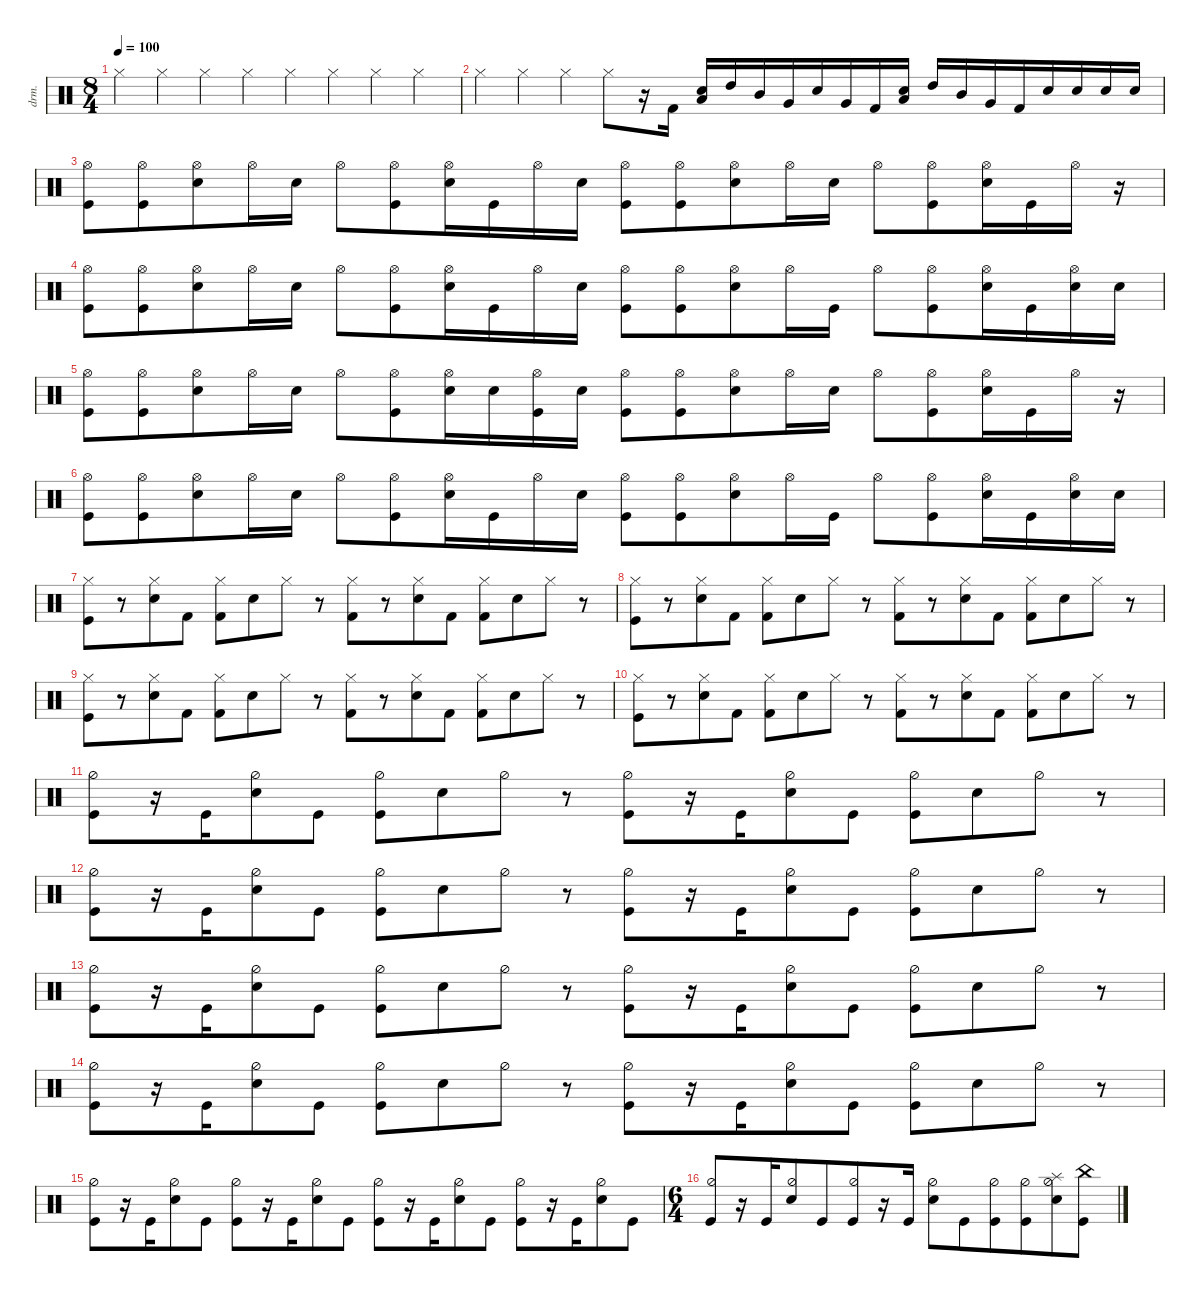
\defaultSystemsLayout 4
\hideDynamics
\bracketExtendMode nobrackets
\otherSystemsTrackNameOrientation horizontal
\track ("Drumkit" "drm.") {instrument percussion}
\staff {score}
\articulation defaults
\ts (8 4)
\beaming (8 4 4 4 4)
\tempo 100
\clef neutral
\ks c "Hi-Hat (closed)".4{dy mf beam Down} "Hi-Hat (closed)".4{beam Down} "Hi-Hat (closed)".4{beam Down} "Hi-Hat (closed)".4{beam Down} "Hi-Hat (closed)".4{beam Down} "Hi-Hat (closed)".4{beam Down} "Hi-Hat (closed)".4{beam Down} "Hi-Hat (closed)".4{beam Down}
|
"Hi-Hat (closed)".4{beam Down} "Hi-Hat (closed)".4{beam Down} "Hi-Hat (closed)".4{beam Down} "Hi-Hat (closed)".8{beam Down} r.16{beam Down} "Kick (hit) 2".16{beam Down} ("Snare (hit) 2" "Low Tom (hit)").16{beam Up} "High Tom (hit)".16{beam Up} "Mid Tom (hit)".16{beam Up} "Very Low Tom (hit)".16{beam Up} "Snare (hit) 2".16{beam Up} "Very Low Tom (hit)".16{beam Up} "Kick (hit) 2".16{beam Up} ("Snare (hit) 2" "Low Tom (hit)").16{beam Up} "High Tom (hit)".16{beam Up} "Mid Tom (hit)".16{beam Up} "Very Low Tom (hit)".16{beam Up} "Kick (hit) 2".16{beam Up} "Snare (hit) 2".16{beam Up} "Snare (hit) 2".16{beam Up} "Snare (hit) 2".16{beam Up} "Snare (hit) 2".16{beam Up} |
("Kick (hit)" "Hi-Hat (open)").8{beam Down} ("Hi-Hat (open)" "Kick (hit)").8{beam Down} ("Hi-Hat (open)" "Snare (hit) 2").8{beam Down} "Hi-Hat (open)".16{beam Down} "Snare (hit) 2".16{beam Down} "Hi-Hat (open)".8{beam Down} ("Hi-Hat (open)" "Kick (hit)").8{beam Down} ("Hi-Hat (open)" "Snare (hit) 2").16{beam Down} "Kick (hit)".16{beam Down} "Hi-Hat (open)".16{beam Down} "Snare (hit) 2".16{beam Down} ("Kick (hit)" "Hi-Hat (open)").8{beam Down} ("Hi-Hat (open)" "Kick (hit)").8{beam Down} ("Hi-Hat (open)" "Snare (hit) 2").8{beam Down} "Hi-Hat (open)".16{beam Down} "Snare (hit) 2".16{beam Down} "Hi-Hat (open)".8{beam Down} ("Hi-Hat (open)" "Kick (hit)").8{beam Down} ("Hi-Hat (open)" "Snare (hit) 2").16{beam Down} "Kick (hit)".16{beam Down} "Hi-Hat (open)".16{beam Down} r.16{beam Down} |
("Kick (hit)" "Hi-Hat (open)").8{beam Down} ("Hi-Hat (open)" "Kick (hit)").8{beam Down} ("Hi-Hat (open)" "Snare (hit) 2").8{beam Down} "Hi-Hat (open)".16{beam Down} "Snare (hit) 2".16{beam Down} "Hi-Hat (open)".8{beam Down} ("Hi-Hat (open)" "Kick (hit)").8{beam Down} ("Hi-Hat (open)" "Snare (hit) 2").16{beam Down} "Kick (hit)".16{beam Down} "Hi-Hat (open)".16{beam Down} "Snare (hit) 2".16{beam Down} ("Kick (hit)" "Hi-Hat (open)").8{beam Down} ("Hi-Hat (open)" "Kick (hit)").8{beam Down} ("Hi-Hat (open)" "Snare (hit) 2").8{beam Down} "Hi-Hat (open)".16{beam Down} "Kick (hit)".16{beam Down} "Hi-Hat (open)".8{beam Down} ("Hi-Hat (open)" "Kick (hit)").8{beam Down} ("Hi-Hat (open)" "Snare (hit) 2").16{beam Down} "Kick (hit)".16{beam Down} ("Hi-Hat (open)" "Snare (hit) 2").16{beam Down} "Snare (hit) 2".16{beam Down} |
("Kick (hit)" "Hi-Hat (open)").8{beam Down} ("Hi-Hat (open)" "Kick (hit)").8{beam Down} ("Hi-Hat (open)" "Snare (hit) 2").8{beam Down} "Hi-Hat (open)".16{beam Down} "Snare (hit) 2".16{beam Down} "Hi-Hat (open)".8{beam Down} ("Hi-Hat (open)" "Kick (hit)").8{beam Down} ("Hi-Hat (open)" "Snare (hit) 2").16{beam Down} "Snare (hit) 2".16{beam Down} ("Hi-Hat (open)" "Kick (hit)").16{beam Down} "Snare (hit) 2".16{beam Down} ("Kick (hit)" "Hi-Hat (open)").8{beam Down} ("Hi-Hat (open)" "Kick (hit)").8{beam Down} ("Hi-Hat (open)" "Snare (hit) 2").8{beam Down} "Hi-Hat (open)".16{beam Down} "Snare (hit) 2".16{beam Down} "Hi-Hat (open)".8{beam Down} ("Hi-Hat (open)" "Kick (hit)").8{beam Down} ("Hi-Hat (open)" "Snare (hit) 2").16{beam Down} "Kick (hit)".16{beam Down} "Hi-Hat (open)".16{beam Down} r.16{beam Down} |
("Kick (hit)" "Hi-Hat (open)").8{beam Down} ("Hi-Hat (open)" "Kick (hit)").8{beam Down} ("Hi-Hat (open)" "Snare (hit) 2").8{beam Down} "Hi-Hat (open)".16{beam Down} "Snare (hit) 2".16{beam Down} "Hi-Hat (open)".8{beam Down} ("Hi-Hat (open)" "Kick (hit)").8{beam Down} ("Hi-Hat (open)" "Snare (hit) 2").16{beam Down} "Kick (hit)".16{beam Down} "Hi-Hat (open)".16{beam Down} "Snare (hit) 2".16{beam Down} ("Kick (hit)" "Hi-Hat (open)").8{beam Down} ("Hi-Hat (open)" "Kick (hit)").8{beam Down} ("Hi-Hat (open)" "Snare (hit) 2").8{beam Down} "Hi-Hat (open)".16{beam Down} "Kick (hit)".16{beam Down} "Hi-Hat (open)".8{beam Down} ("Hi-Hat (open)" "Kick (hit)").8{beam Down} ("Hi-Hat (open)" "Snare (hit) 2").16{beam Down} "Kick (hit)".16{beam Down} ("Hi-Hat (open)" "Snare (hit) 2").16{beam Down} "Snare (hit) 2".16{beam Down} |
("Kick (hit)" "Hi-Hat (closed)").8{beam Down} r.8{beam Down} ("Hi-Hat (closed)" "Snare (hit) 2").8{beam Down} "Kick (hit) 2".8{beam Down} ("Hi-Hat (closed)" "Kick (hit) 2").8{beam Down} "Snare (hit) 2".8{beam Down} "Hi-Hat (closed)".8{beam Down} r.8{beam Down} ("Hi-Hat (closed)" "Kick (hit) 2").8{beam Down} r.8{beam Down} ("Hi-Hat (closed)" "Snare (hit) 2").8{beam Down} "Kick (hit) 2".8{beam Down} ("Hi-Hat (closed)" "Kick (hit) 2").8{beam Down} "Snare (hit) 2".8{beam Down} "Hi-Hat (closed)".8{beam Down} r.8{beam Down} |
("Kick (hit)" "Hi-Hat (closed)").8{beam Down} r.8{beam Down} ("Hi-Hat (closed)" "Snare (hit) 2").8{beam Down} "Kick (hit) 2".8{beam Down} ("Hi-Hat (closed)" "Kick (hit) 2").8{beam Down} "Snare (hit) 2".8{beam Down} "Hi-Hat (closed)".8{beam Down} r.8{beam Down} ("Hi-Hat (closed)" "Kick (hit) 2").8{beam Down} r.8{beam Down} ("Hi-Hat (closed)" "Snare (hit) 2").8{beam Down} "Kick (hit) 2".8{beam Down} ("Hi-Hat (closed)" "Kick (hit) 2").8{beam Down} "Snare (hit) 2".8{beam Down} "Hi-Hat (closed)".8{beam Down} r.8{beam Down} |
("Kick (hit)" "Hi-Hat (closed)").8{beam Down} r.8{beam Down} ("Hi-Hat (closed)" "Snare (hit) 2").8{beam Down} "Kick (hit) 2".8{beam Down} ("Hi-Hat (closed)" "Kick (hit) 2").8{beam Down} "Snare (hit) 2".8{beam Down} "Hi-Hat (closed)".8{beam Down} r.8{beam Down} ("Hi-Hat (closed)" "Kick (hit) 2").8{beam Down} r.8{beam Down} ("Hi-Hat (closed)" "Snare (hit) 2").8{beam Down} "Kick (hit) 2".8{beam Down} ("Hi-Hat (closed)" "Kick (hit) 2").8{beam Down} "Snare (hit) 2".8{beam Down} "Hi-Hat (closed)".8{beam Down} r.8{beam Down} |
("Kick (hit)" "Hi-Hat (closed)").8{beam Down} r.8{beam Down} ("Hi-Hat (closed)" "Snare (hit) 2").8{beam Down} "Kick (hit) 2".8{beam Down} ("Hi-Hat (closed)" "Kick (hit) 2").8{beam Down} "Snare (hit) 2".8{beam Down} "Hi-Hat (closed)".8{beam Down} r.8{beam Down} ("Hi-Hat (closed)" "Kick (hit) 2").8{beam Down} r.8{beam Down} ("Hi-Hat (closed)" "Snare (hit) 2").8{beam Down} "Kick (hit) 2".8{beam Down} ("Hi-Hat (closed)" "Kick (hit) 2").8{beam Down} "Snare (hit) 2".8{beam Down} "Hi-Hat (closed)".8{beam Down} r.8{beam Down} |
("Kick (hit)" "Hi-Hat (half)").8{beam Down} r.16{beam Down} "Kick (hit)".16{beam Down} ("Hi-Hat (half)" "Snare (hit) 2").8{beam Down} "Kick (hit)".8{beam Down} ("Hi-Hat (half)" "Kick (hit)").8{beam Down} "Snare (hit) 2".8{beam Down} "Hi-Hat (half)".8{beam Down} r.8{beam Down} ("Hi-Hat (half)" "Kick (hit)").8{beam Down} r.16{beam Down} "Kick (hit)".16{beam Down} ("Hi-Hat (half)" "Snare (hit) 2").8{beam Down} "Kick (hit)".8{beam Down} ("Hi-Hat (half)" "Kick (hit)").8{beam Down} "Snare (hit) 2".8{beam Down} "Hi-Hat (half)".8{beam Down} r.8{beam Down} |
("Kick (hit)" "Hi-Hat (half)").8{beam Down} r.16{beam Down} "Kick (hit)".16{beam Down} ("Hi-Hat (half)" "Snare (hit) 2").8{beam Down} "Kick (hit)".8{beam Down} ("Hi-Hat (half)" "Kick (hit)").8{beam Down} "Snare (hit) 2".8{beam Down} "Hi-Hat (half)".8{beam Down} r.8{beam Down} ("Hi-Hat (half)" "Kick (hit)").8{beam Down} r.16{beam Down} "Kick (hit)".16{beam Down} ("Hi-Hat (half)" "Snare (hit) 2").8{beam Down} "Kick (hit)".8{beam Down} ("Hi-Hat (half)" "Kick (hit)").8{beam Down} "Snare (hit) 2".8{beam Down} "Hi-Hat (half)".8{beam Down} r.8{beam Down} |
("Kick (hit)" "Hi-Hat (half)").8{beam Down} r.16{beam Down} "Kick (hit)".16{beam Down} ("Hi-Hat (half)" "Snare (hit) 2").8{beam Down} "Kick (hit)".8{beam Down} ("Hi-Hat (half)" "Kick (hit)").8{beam Down} "Snare (hit) 2".8{beam Down} "Hi-Hat (half)".8{beam Down} r.8{beam Down} ("Hi-Hat (half)" "Kick (hit)").8{beam Down} r.16{beam Down} "Kick (hit)".16{beam Down} ("Hi-Hat (half)" "Snare (hit) 2").8{beam Down} "Kick (hit)".8{beam Down} ("Hi-Hat (half)" "Kick (hit)").8{beam Down} "Snare (hit) 2".8{beam Down} "Hi-Hat (half)".8{beam Down} r.8{beam Down} |
("Kick (hit)" "Hi-Hat (half)").8{beam Down} r.16{beam Down} "Kick (hit)".16{beam Down} ("Hi-Hat (half)" "Snare (hit) 2").8{beam Down} "Kick (hit)".8{beam Down} ("Hi-Hat (half)" "Kick (hit)").8{beam Down} "Snare (hit) 2".8{beam Down} "Hi-Hat (half)".8{beam Down} r.8{beam Down} ("Hi-Hat (half)" "Kick (hit)").8{beam Down} r.16{beam Down} "Kick (hit)".16{beam Down} ("Hi-Hat (half)" "Snare (hit) 2").8{beam Down} "Kick (hit)".8{beam Down} ("Hi-Hat (half)" "Kick (hit)").8{beam Down} "Snare (hit) 2".8{beam Down} "Hi-Hat (half)".8{beam Down} r.8{beam Down} |
("Kick (hit)" "Hi-Hat (half)").8{beam Down} r.16{beam Down} "Kick (hit)".16{beam Down} ("Hi-Hat (half)" "Snare (hit) 2").8{beam Down} "Kick (hit)".8{beam Down} ("Hi-Hat (half)" "Kick (hit)").8{beam Down} r.16{beam Down} "Kick (hit)".16{beam Down} ("Hi-Hat (half)" "Snare (hit) 2").8{beam Down} "Kick (hit)".8{beam Down} ("Kick (hit)" "Hi-Hat (half)").8{beam Down} r.16{beam Down} "Kick (hit)".16{beam Down} ("Hi-Hat (half)" "Snare (hit) 2").8{beam Down} "Kick (hit)".8{beam Down} ("Hi-Hat (half)" "Kick (hit)").8{beam Down} r.16{beam Down} "Kick (hit)".16{beam Down} ("Hi-Hat (half)" "Snare (hit) 2").8{beam Down} "Kick (hit)".8{beam Down} |
\ts (6 4)
\beaming (8 6 6)
("Kick (hit)" "Hi-Hat (half)").8{beam Up} r.16{beam Up} "Kick (hit)".16{beam Up} ("Hi-Hat (half)" "Snare (hit) 2").8{beam Up} "Kick (hit)".8{beam Up} ("Hi-Hat (half)" "Kick (hit)").8{beam Up} r.16{beam Up} "Kick (hit)".16{beam Up} ("Hi-Hat (half)" "Snare (hit) 2").8{beam Down} "Kick (hit)".8{beam Down} ("Kick (hit)" "Hi-Hat (half)").8{beam Down} ("Kick (hit)" "Hi-Hat (half)").8{beam Down} ("Hi-Hat (half)" "Snare (hit) 2" "Splash (hit)").8{beam Down} ("Kick (hit)" "China (hit)").8{beam Down}
